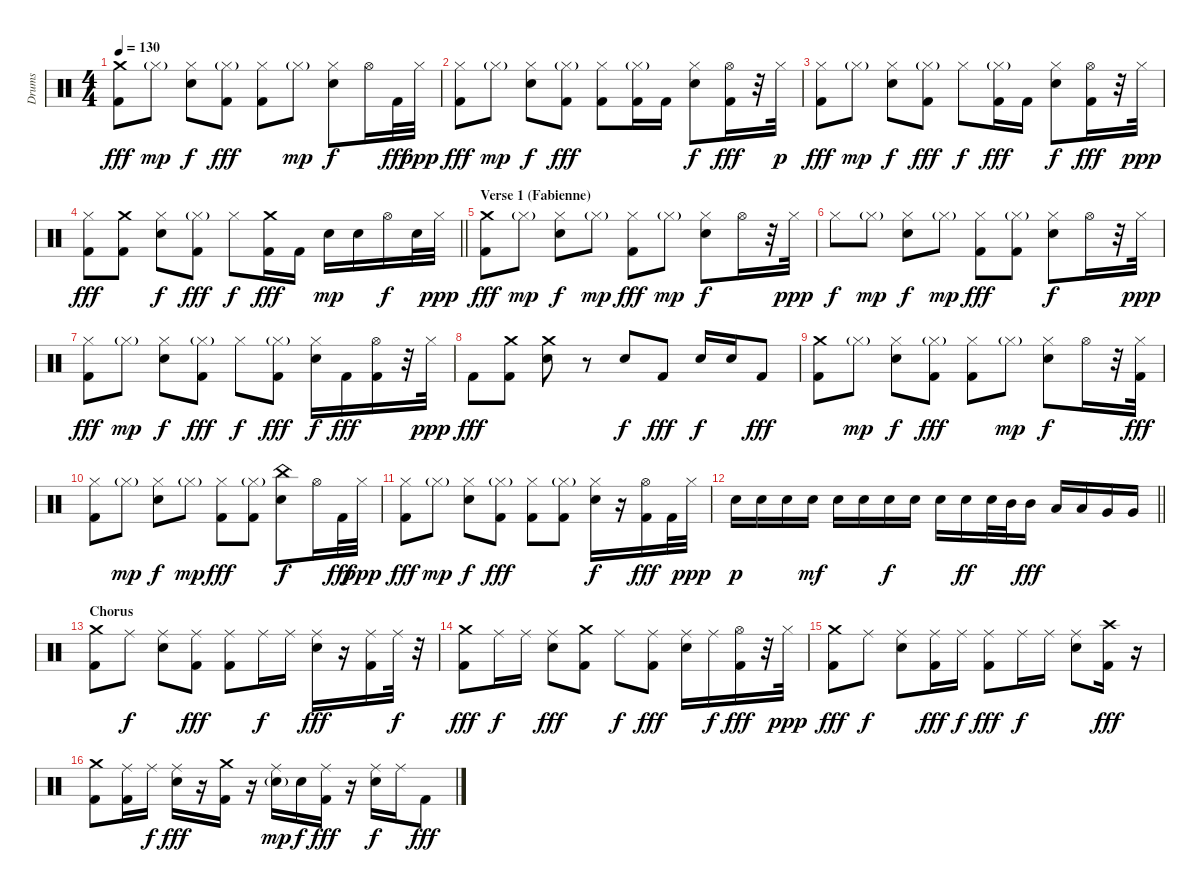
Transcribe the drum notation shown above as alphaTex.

\track ("Drums" "Drums") {instrument percussion}
\staff {score}
\articulation defaults
\ts (4 4)
\tempo 130
\clef neutral
\ks c
("Crash medium (hit)" "Kick (hit) 2").8{dy fff} "Hi-Hat (closed)"{g}.8{dy mp} ("Hi-Hat (closed)" "Snare (hit) 2").8{dy f} ("Hi-Hat (closed)"{g} "Kick (hit) 2").8{dy fff} ("Hi-Hat (closed)" "Kick (hit) 2").8 "Hi-Hat (closed)"{g}.8{dy mp} ("Hi-Hat (closed)" "Snare (hit) 2").8{dy f} "Hi-Hat (open)".16 "Kick (hit) 2".32{dy fff} "Hi-Hat (closed)".32{dy ppp} |
("Hi-Hat (closed)" "Kick (hit) 2").8{dy fff} "Hi-Hat (closed)"{g}.8{dy mp} ("Hi-Hat (closed)" "Snare (hit) 2").8{dy f} ("Hi-Hat (closed)"{g} "Kick (hit) 2").8{dy fff} ("Hi-Hat (closed)" "Kick (hit) 2").8 ("Hi-Hat (closed)"{g} "Kick (hit) 2").16 "Kick (hit) 2".16 ("Hi-Hat (closed)" "Snare (hit) 2").8{dy f} ("Hi-Hat (open)" "Kick (hit) 2").16{dy fff} r.32 "Hi-Hat (closed)".32{dy p} |
("Hi-Hat (closed)" "Kick (hit) 2").8{dy fff} "Hi-Hat (closed)"{g}.8{dy mp} ("Hi-Hat (closed)" "Snare (hit) 2").8{dy f} ("Hi-Hat (closed)"{g} "Kick (hit) 2").8{dy fff} "Hi-Hat (closed)".8{dy f} ("Hi-Hat (closed)"{g} "Kick (hit) 2").16{dy fff} "Kick (hit) 2".16 ("Hi-Hat (closed)" "Snare (hit) 2").8{dy f} ("Hi-Hat (open)" "Kick (hit) 2").16{dy fff} r.32 "Hi-Hat (closed)".32{dy ppp} |
\barLineRight lightlight
("Hi-Hat (closed)" "Kick (hit) 2").8{dy fff} ("Crash medium (hit)" "Kick (hit) 2").8 ("Hi-Hat (closed)" "Snare (hit) 2").8{dy f} ("Hi-Hat (closed)"{g} "Kick (hit) 2").8{dy fff} "Hi-Hat (closed)".8{dy f} ("Crash medium (hit)" "Kick (hit) 2").16{dy fff} "Kick (hit) 2".16 "Snare (hit) 2".16{dy mp} "Snare (hit) 2".16 "Hi-Hat (open)".16{dy f} "Snare (hit) 2".32 "Hi-Hat (closed)".32{dy ppp} |
\section ("" "Verse 1 (Fabienne)")
("Crash medium (hit)" "Kick (hit) 2").8{dy fff} "Hi-Hat (closed)"{g}.8{dy mp} ("Hi-Hat (closed)" "Snare (hit) 2").8{dy f} "Hi-Hat (closed)"{g}.8{dy mp} ("Hi-Hat (closed)" "Kick (hit) 2").8{dy fff} "Hi-Hat (closed)"{g}.8{dy mp} ("Hi-Hat (closed)" "Snare (hit) 2").8{dy f} "Hi-Hat (open)".16 r.32 "Hi-Hat (closed)".32{dy ppp} |
"Hi-Hat (closed)".8{dy f} "Hi-Hat (closed)"{g}.8{dy mp} ("Hi-Hat (closed)" "Snare (hit) 2").8{dy f} "Hi-Hat (closed)"{g}.8{dy mp} ("Hi-Hat (closed)" "Kick (hit) 2").8{dy fff} ("Hi-Hat (closed)"{g} "Kick (hit) 2").8 ("Hi-Hat (closed)" "Snare (hit) 2").8{dy f} "Hi-Hat (open)".16 r.32 "Hi-Hat (closed)".32{dy ppp} |
("Hi-Hat (closed)" "Kick (hit) 2").8{dy fff} "Hi-Hat (closed)"{g}.8{dy mp} ("Hi-Hat (closed)" "Snare (hit) 2").8{dy f} ("Hi-Hat (closed)"{g} "Kick (hit) 2").8{dy fff} "Hi-Hat (closed)".8{dy f} ("Hi-Hat (closed)"{g} "Kick (hit) 2").8{dy fff} ("Hi-Hat (closed)" "Snare (hit) 2").16{dy f} "Kick (hit) 2".16{dy fff} ("Hi-Hat (open)" "Kick (hit) 2").16 r.32 "Hi-Hat (closed)".32{dy ppp} |
"Kick (hit) 2".8{dy fff} ("Crash medium (hit)" "Kick (hit) 2").8 ("Crash medium (hit)" "Snare (hit) 2").8 r.8 "Snare (hit) 2".8{dy f} "Kick (hit) 2".8{dy fff} "Snare (hit) 2".16{dy f} "Snare (hit) 2".16 "Kick (hit) 2".8{dy fff} |
("Crash medium (hit)" "Kick (hit) 2").8 "Hi-Hat (closed)"{g}.8{dy mp} ("Hi-Hat (closed)" "Snare (hit) 2").8{dy f} ("Hi-Hat (closed)"{g} "Kick (hit) 2").8{dy fff} ("Hi-Hat (closed)" "Kick (hit) 2").8 "Hi-Hat (closed)"{g}.8{dy mp} ("Hi-Hat (closed)" "Snare (hit) 2").8{dy f} "Hi-Hat (open)".16 r.32 ("Hi-Hat (closed)" "Kick (hit) 2").32{dy fff} |
("Hi-Hat (closed)" "Kick (hit) 2").8 "Hi-Hat (closed)"{g}.8{dy mp} ("Hi-Hat (closed)" "Snare (hit) 2").8{dy f} "Hi-Hat (closed)"{g}.8{dy mp} ("Hi-Hat (closed)" "Kick (hit) 2").8{dy fff} ("Hi-Hat (closed)"{g} "Kick (hit) 2").8 ("China (hit)" "Snare (hit) 2").8{dy f} "Hi-Hat (open)".16 "Kick (hit) 2".32{dy fff} "Hi-Hat (closed)".32{dy ppp} |
("Hi-Hat (closed)" "Kick (hit) 2").8{dy fff} "Hi-Hat (closed)"{g}.8{dy mp} ("Hi-Hat (closed)" "Snare (hit) 2").8{dy f} ("Hi-Hat (closed)"{g} "Kick (hit) 2").8{dy fff} ("Hi-Hat (closed)" "Kick (hit) 2").8 ("Hi-Hat (closed)"{g} "Kick (hit) 2").8 ("Hi-Hat (closed)" "Snare (hit) 2").16{dy f} r.16 ("Hi-Hat (open)" "Kick (hit) 2").16{dy fff} "Kick (hit) 2".32 "Hi-Hat (closed)".32{dy ppp} |
\barLineRight lightlight "Snare (hit) 2".16{dy p} "Snare (hit) 2".16 "Snare (hit) 2".16 "Snare (hit) 2".16{dy mf} "Snare (hit) 2".16 "Snare (hit) 2".16 "Snare (hit) 2".16{dy f} "Snare (hit) 2".16 "Snare (hit) 2".16 "Snare (hit) 2".16{dy ff} "Snare (hit) 2".32 "Mid Tom (hit)".32 "Mid Tom (hit)".16{dy fff} "Low Tom (hit)".16 "Low Tom (hit)".16 "Very Low Tom (hit)".16 "Very Low Tom (hit)".16
|
\section ("" "Chorus ")
("Crash medium (hit)" "Kick (hit) 2").8 "Ride (middle)".8{dy f} ("Ride (middle)" "Snare (hit) 2").8 ("Ride (middle)" "Kick (hit) 2").8{dy fff} ("Ride (middle)" "Kick (hit) 2").8 "Ride (middle)".16{dy f} "Ride (middle)".16 ("Ride (middle)" "Snare (hit) 2").16{dy fff} r.16 ("Ride (middle)" "Kick (hit) 2").16 "Ride (middle)".32{dy f} r.32 |
("Crash medium (hit)" "Kick (hit) 2").8{dy fff} "Ride (middle)".16{dy f} "Ride (middle)".16 ("Ride (middle)" "Snare (hit) 2").8{dy fff} ("Crash medium (hit)" "Kick (hit) 2").8 "Ride (middle)".8{dy f} ("Ride (middle)" "Kick (hit) 2").8{dy fff} ("Ride (middle)" "Snare (hit) 2").16 "Ride (middle)".16{dy f} ("Hi-Hat (open)" "Kick (hit) 2").16{dy fff} r.32 "Hi-Hat (closed)".32{dy ppp} |
("Crash medium (hit)" "Kick (hit) 2").8{dy fff} "Ride (middle)".8{dy f} ("Ride (middle)" "Snare (hit) 2").8 ("Ride (middle)" "Kick (hit) 2").16{dy fff} "Ride (middle)".16{dy f} ("Ride (middle)" "Kick (hit) 2").8{dy fff} "Ride (middle)".16{dy f} "Ride (middle)".16 ("Ride (middle)" "Snare (hit) 2").8 ("Crash high (hit)" "Kick (hit) 2").16{dy fff} r.16 |
("Crash medium (hit)" "Kick (hit) 2").8 ("Ride (middle)" "Kick (hit) 2").16 "Ride (middle)".16{dy f} ("Ride (middle)" "Snare (hit) 2").16{dy fff} r.16 ("Crash medium (hit)" "Kick (hit) 2").16 r.16 ("Ride (middle)" "Snare (hit) 2"{g}).16{dy mp} "Snare (hit) 2".16{dy f} ("Ride (middle)" "Kick (hit) 2").16{dy fff} r.16 ("Ride (middle)" "Snare (hit) 2").16{dy f} "Ride (middle)".16 "Kick (hit) 2".8{dy fff}
